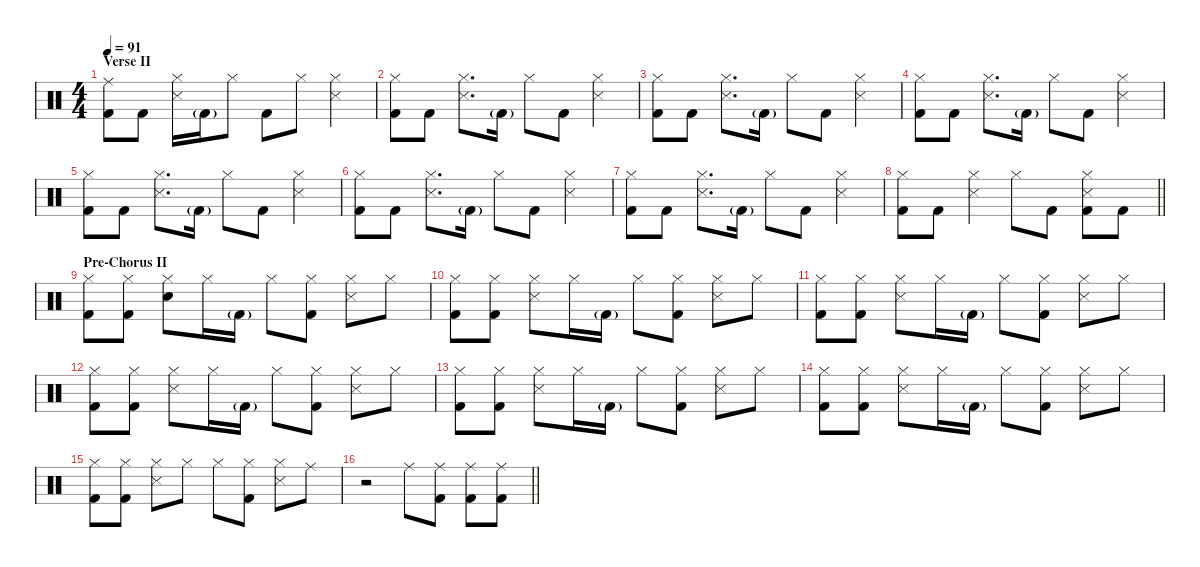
\defaultSystemsLayout 4
\hideDynamics
\bracketExtendMode nobrackets
\singleTrackTrackNamePolicy hidden
\multiTrackTrackNamePolicy hidden
\otherSystemsTrackNameOrientation horizontal
\track ("Jose Pasillas" "drm.") {defaultSystemsLayout 4 instrument percussion}
\staff {score}
\articulation defaults
\ts (4 4)
\section ("" "Verse II")
\tempo 91
\clef neutral
\ks c
("Ride (middle)" "Kick (hit) 2").8{dy f beam Down} "Kick (hit) 2".8{beam Down} ("Hi-Hat (closed)" "Snare (side stick) 3").16{beam Down} "Kick (hit) 2"{g}.16{dy mf beam Down} "Hi-Hat (closed)".8{dy f beam Down} "Kick (hit) 2".8{beam Down} "Hi-Hat (closed)".8{beam Down} ("Hi-Hat (closed)" "Snare (side stick) 3").4{beam Down} |
("Hi-Hat (closed)" "Kick (hit) 2").8{beam Down} "Kick (hit) 2".8{beam Down} ("Hi-Hat (closed)" "Snare (side stick) 3").8{d beam Down} "Kick (hit) 2"{g}.16{dy mf beam Down} "Hi-Hat (closed)".8{dy f beam Down} "Kick (hit) 2".8{beam Down} ("Hi-Hat (closed)" "Snare (side stick) 3").4{beam Down} |
("Hi-Hat (closed)" "Kick (hit) 2").8{beam Down} "Kick (hit) 2".8{beam Down} ("Hi-Hat (closed)" "Snare (side stick) 3").8{d beam Down} "Kick (hit) 2"{g}.16{dy mf beam Down} "Hi-Hat (closed)".8{dy f beam Down} "Kick (hit) 2".8{beam Down} ("Hi-Hat (closed)" "Snare (side stick) 3").4{beam Down} |
("Hi-Hat (closed)" "Kick (hit) 2").8{beam Down} "Kick (hit) 2".8{beam Down} ("Hi-Hat (closed)" "Snare (side stick) 3").8{d beam Down} "Kick (hit) 2"{g}.16{dy mf beam Down} "Hi-Hat (closed)".8{dy f beam Down} "Kick (hit) 2".8{beam Down} ("Hi-Hat (closed)" "Snare (side stick) 3").4{beam Down} |
("Hi-Hat (closed)" "Kick (hit) 2").8{beam Down} "Kick (hit) 2".8{beam Down} ("Hi-Hat (closed)" "Snare (side stick) 3").8{d beam Down} "Kick (hit) 2"{g}.16{dy mf beam Down} "Hi-Hat (closed)".8{dy f beam Down} "Kick (hit) 2".8{beam Down} ("Hi-Hat (closed)" "Snare (side stick) 3").4{beam Down} |
("Hi-Hat (closed)" "Kick (hit) 2").8{beam Down} "Kick (hit) 2".8{beam Down} ("Hi-Hat (closed)" "Snare (side stick) 3").8{d beam Down} "Kick (hit) 2"{g}.16{dy mf beam Down} "Hi-Hat (closed)".8{dy f beam Down} "Kick (hit) 2".8{beam Down} ("Hi-Hat (closed)" "Snare (side stick) 3").4{beam Down} |
("Hi-Hat (closed)" "Kick (hit) 2").8{beam Down} "Kick (hit) 2".8{beam Down} ("Hi-Hat (closed)" "Snare (side stick) 3").8{d beam Down} "Kick (hit) 2"{g}.16{dy mf beam Down} "Hi-Hat (closed)".8{dy f beam Down} "Kick (hit) 2".8{beam Down} ("Hi-Hat (closed)" "Snare (side stick) 3").4{beam Down} |
\barLineRight lightlight
("Hi-Hat (closed)" "Kick (hit) 2").8{beam Down} "Kick (hit) 2".8{beam Down} ("Hi-Hat (closed)" "Snare (side stick) 3").4{beam Down} "Hi-Hat (closed)".8{beam Down} "Kick (hit) 2".8{beam Down} ("Hi-Hat (closed)" "Snare (side stick) 3" "Kick (hit) 2").8{beam Down} "Kick (hit) 2".8{beam Down} |
\section ("" "Pre-Chorus II")
("Hi-Hat (closed)" "Kick (hit) 2").8{beam Down} ("Hi-Hat (closed)" "Kick (hit) 2").8{beam Down} ("Hi-Hat (closed)" "Snare (hit) 2").8{beam Down} "Hi-Hat (closed)".16{beam Down} "Kick (hit) 2"{g}.16{dy mf beam Down} "Hi-Hat (closed)".8{dy f beam Down} ("Hi-Hat (closed)" "Kick (hit) 2").8{beam Down} ("Hi-Hat (closed)" "Snare (side stick) 3").8{beam Down} "Hi-Hat (closed)".8{beam Down} |
("Hi-Hat (closed)" "Kick (hit) 2").8{beam Down} ("Hi-Hat (closed)" "Kick (hit) 2").8{beam Down} ("Hi-Hat (closed)" "Snare (side stick) 3").8{beam Down} "Hi-Hat (closed)".16{beam Down} "Kick (hit) 2"{g}.16{dy mf beam Down} "Hi-Hat (closed)".8{dy f beam Down} ("Hi-Hat (closed)" "Kick (hit) 2").8{beam Down} ("Hi-Hat (closed)" "Snare (side stick) 3").8{beam Down} "Hi-Hat (closed)".8{beam Down} |
("Hi-Hat (closed)" "Kick (hit) 2").8{beam Down} ("Hi-Hat (closed)" "Kick (hit) 2").8{beam Down} ("Hi-Hat (closed)" "Snare (side stick) 3").8{beam Down} "Hi-Hat (closed)".16{beam Down} "Kick (hit) 2"{g}.16{dy mf beam Down} "Hi-Hat (closed)".8{dy f beam Down} ("Hi-Hat (closed)" "Kick (hit) 2").8{beam Down} ("Hi-Hat (closed)" "Snare (side stick) 3").8{beam Down} "Hi-Hat (closed)".8{beam Down} |
("Hi-Hat (closed)" "Kick (hit) 2").8{beam Down} ("Hi-Hat (closed)" "Kick (hit) 2").8{beam Down} ("Hi-Hat (closed)" "Snare (side stick) 3").8{beam Down} "Hi-Hat (closed)".16{beam Down} "Kick (hit) 2"{g}.16{dy mf beam Down} "Hi-Hat (closed)".8{dy f beam Down} ("Hi-Hat (closed)" "Kick (hit) 2").8{beam Down} ("Hi-Hat (closed)" "Snare (side stick) 3").8{beam Down} "Hi-Hat (closed)".8{beam Down} |
("Hi-Hat (closed)" "Kick (hit) 2").8{beam Down} ("Hi-Hat (closed)" "Kick (hit) 2").8{beam Down} ("Hi-Hat (closed)" "Snare (side stick) 3").8{beam Down} "Hi-Hat (closed)".16{beam Down} "Kick (hit) 2"{g}.16{dy mf beam Down} "Hi-Hat (closed)".8{dy f beam Down} ("Hi-Hat (closed)" "Kick (hit) 2").8{beam Down} ("Hi-Hat (closed)" "Snare (side stick) 3").8{beam Down} "Hi-Hat (closed)".8{beam Down} |
("Hi-Hat (closed)" "Kick (hit) 2").8{beam Down} ("Hi-Hat (closed)" "Kick (hit) 2").8{beam Down} ("Hi-Hat (closed)" "Snare (side stick) 3").8{beam Down} "Hi-Hat (closed)".16{beam Down} "Kick (hit) 2"{g}.16{dy mf beam Down} "Hi-Hat (closed)".8{dy f beam Down} ("Hi-Hat (closed)" "Kick (hit) 2").8{beam Down} ("Hi-Hat (closed)" "Snare (side stick) 3").8{beam Down} "Hi-Hat (closed)".8{beam Down} |
("Hi-Hat (closed)" "Kick (hit) 2").8{beam Down} ("Hi-Hat (closed)" "Kick (hit) 2").8{beam Down} ("Hi-Hat (closed)" "Snare (side stick) 3").8{beam Down} "Hi-Hat (closed)".8{beam Down} "Hi-Hat (closed)".8{beam Down} ("Hi-Hat (closed)" "Kick (hit) 2").8{beam Down} ("Hi-Hat (closed)" "Snare (side stick) 3").8{beam Down} "Ride (middle)".8{beam Down} |
\barLineRight lightlight
r.2{beam Down} "Ride (middle)".8{beam Down} ("Ride (middle)" "Kick (hit) 2").8{beam Down} ("Ride (middle)" "Kick (hit) 2").8{beam Down} ("Ride (middle)" "Kick (hit) 2").8{beam Down}
